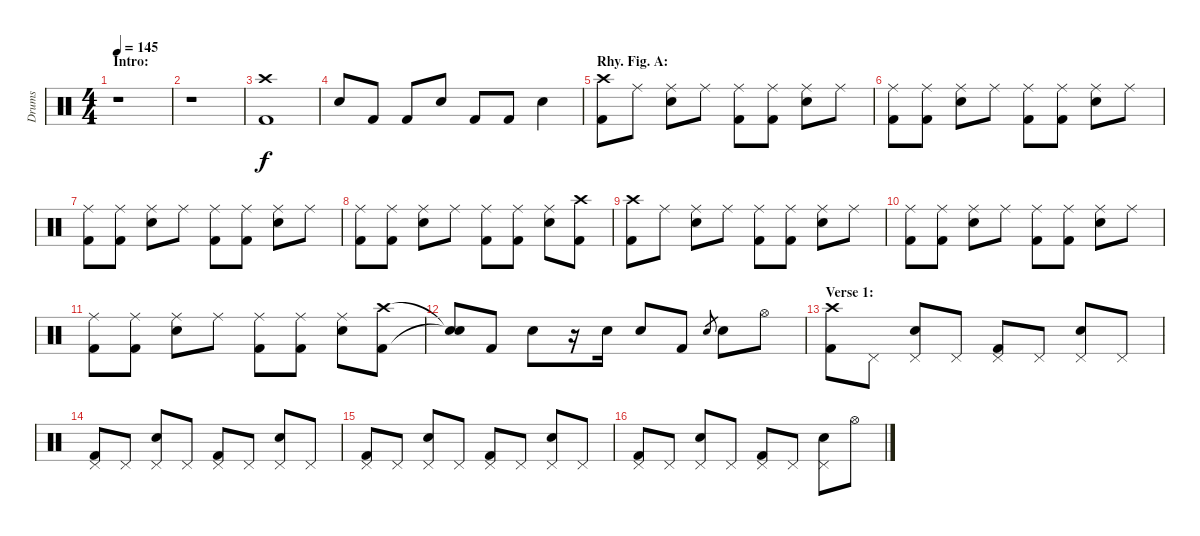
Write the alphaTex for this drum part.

\track ("Drums" "Drums") {instrument percussion}
\staff {score}
\articulation defaults
\ts (4 4)
\section ("" "Intro:")
\tempo 145
\clef neutral
\ks c
r.1{dy f} |
r.1 |
("Crash high (hit)" "Kick (hit) 2").1 |
"Electric Snare (hit)".8 "Kick (hit) 2".8 "Kick (hit) 2".8 "Electric Snare (hit)".8 "Kick (hit) 2".8 "Kick (hit) 2".8 "Electric Snare (hit)".4 |
\section ("" "Rhy. Fig. A:")
("Crash high (hit)" "Kick (hit) 2").8 "Ride (middle)".8 ("Ride (middle)" "Electric Snare (hit)").8 "Ride (middle)".8 ("Ride (middle)" "Kick (hit) 2").8 ("Ride (middle)" "Kick (hit) 2").8 ("Ride (middle)" "Electric Snare (hit)").8 "Ride (middle)".8 |
("Ride (middle)" "Kick (hit) 2").8 ("Ride (middle)" "Kick (hit) 2").8 ("Ride (middle)" "Electric Snare (hit)").8 "Ride (middle)".8 ("Ride (middle)" "Kick (hit) 2").8 ("Ride (middle)" "Kick (hit) 2").8 ("Ride (middle)" "Electric Snare (hit)").8 "Ride (middle)".8 |
("Ride (middle)" "Kick (hit) 2").8 ("Ride (middle)" "Kick (hit) 2").8 ("Ride (middle)" "Electric Snare (hit)").8 "Ride (middle)".8 ("Ride (middle)" "Kick (hit) 2").8 ("Ride (middle)" "Kick (hit) 2").8 ("Ride (middle)" "Electric Snare (hit)").8 "Ride (middle)".8 |
("Ride (middle)" "Kick (hit) 2").8 ("Ride (middle)" "Kick (hit) 2").8 ("Ride (middle)" "Electric Snare (hit)").8 "Ride (middle)".8 ("Ride (middle)" "Kick (hit) 2").8 ("Ride (middle)" "Kick (hit) 2").8 ("Ride (middle)" "Electric Snare (hit)").8 ("Crash high (hit)" "Kick (hit) 2").8 |
("Crash high (hit)" "Kick (hit) 2").8 "Ride (middle)".8 ("Ride (middle)" "Electric Snare (hit)").8 "Ride (middle)".8 ("Ride (middle)" "Kick (hit) 2").8 ("Ride (middle)" "Kick (hit) 2").8 ("Ride (middle)" "Electric Snare (hit)").8 "Ride (middle)".8 |
("Ride (middle)" "Kick (hit) 2").8 ("Ride (middle)" "Kick (hit) 2").8 ("Ride (middle)" "Electric Snare (hit)").8 "Ride (middle)".8 ("Ride (middle)" "Kick (hit) 2").8 ("Ride (middle)" "Kick (hit) 2").8 ("Ride (middle)" "Electric Snare (hit)").8 "Ride (middle)".8 |
("Ride (middle)" "Kick (hit) 2").8 ("Ride (middle)" "Kick (hit) 2").8 ("Ride (middle)" "Electric Snare (hit)").8 "Ride (middle)".8 ("Ride (middle)" "Kick (hit) 2").8 ("Ride (middle)" "Kick (hit) 2").8 ("Ride (middle)" "Electric Snare (hit)").8 ("Crash high (hit)" "Kick (hit) 2").8 |
("Snare (hit)"{t} "Snare (hit)"{t}).8 "Kick (hit) 2".8 "Electric Snare (hit)".8 r.16 "Electric Snare (hit)".16 "Electric Snare (hit)".8 "Kick (hit) 2".8 "Electric Snare (hit)".8{gr} "Electric Snare (hit)".8 "Hi-Hat (open)".8 |
\section ("" "Verse 1:")
("Crash high (hit)" "Kick (hit) 2").8 "Pedal Hi-Hat (hit)".8 ("Pedal Hi-Hat (hit)" "Electric Snare (hit)").8 "Pedal Hi-Hat (hit)".8 ("Pedal Hi-Hat (hit)" "Kick (hit) 2").8 "Pedal Hi-Hat (hit)".8 ("Pedal Hi-Hat (hit)" "Electric Snare (hit)").8 "Pedal Hi-Hat (hit)".8 |
("Pedal Hi-Hat (hit)" "Kick (hit) 2").8 "Pedal Hi-Hat (hit)".8 ("Pedal Hi-Hat (hit)" "Electric Snare (hit)").8 "Pedal Hi-Hat (hit)".8 ("Pedal Hi-Hat (hit)" "Kick (hit) 2").8 "Pedal Hi-Hat (hit)".8 ("Pedal Hi-Hat (hit)" "Electric Snare (hit)").8 "Pedal Hi-Hat (hit)".8 |
("Pedal Hi-Hat (hit)" "Kick (hit) 2").8 "Pedal Hi-Hat (hit)".8 ("Pedal Hi-Hat (hit)" "Electric Snare (hit)").8 "Pedal Hi-Hat (hit)".8 ("Pedal Hi-Hat (hit)" "Kick (hit) 2").8 "Pedal Hi-Hat (hit)".8 ("Pedal Hi-Hat (hit)" "Electric Snare (hit)").8 "Pedal Hi-Hat (hit)".8 |
("Pedal Hi-Hat (hit)" "Kick (hit) 2").8 "Pedal Hi-Hat (hit)".8 ("Pedal Hi-Hat (hit)" "Electric Snare (hit)").8 "Pedal Hi-Hat (hit)".8 ("Pedal Hi-Hat (hit)" "Kick (hit) 2").8 "Pedal Hi-Hat (hit)".8 ("Pedal Hi-Hat (hit)" "Electric Snare (hit)").8 "Hi-Hat (open)".8
